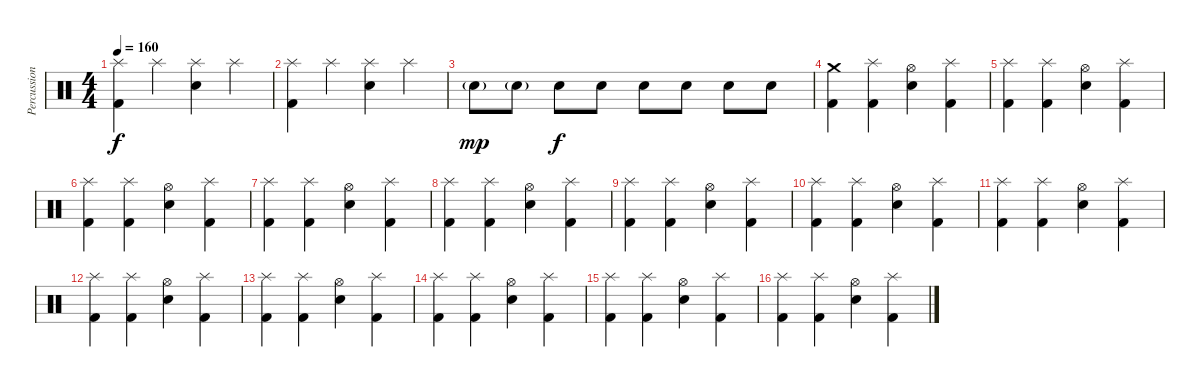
\track ("Percussion" "Percussion") {instrument percussion}
\staff {score}
\articulation defaults
\ts (4 4)
\tempo 160
\clef neutral
\ks c
("Splash (hit)" "Kick (hit) 2").4{dy f} "Splash (hit)".4 ("Splash (hit)" "Electric Snare (hit)").4 "Splash (hit)".4 |
("Splash (hit)" "Kick (hit) 2").4 "Splash (hit)".4 ("Splash (hit)" "Electric Snare (hit)").4 "Splash (hit)".4 |
"Electric Snare (hit)"{g}.8{dy mp} "Electric Snare (hit)"{g}.8 "Electric Snare (hit)".8{dy f} "Electric Snare (hit)".8 "Electric Snare (hit)".8 "Electric Snare (hit)".8 "Electric Snare (hit)".8 "Electric Snare (hit)".8 |
("Crash medium (hit)" "Kick (hit) 2").4 ("Splash (hit)" "Kick (hit) 2").4 ("Hi-Hat (open)" "Electric Snare (hit)").4 ("Splash (hit)" "Kick (hit) 2").4 |
("Splash (hit)" "Kick (hit) 2").4 ("Splash (hit)" "Kick (hit) 2").4 ("Hi-Hat (open)" "Electric Snare (hit)").4 ("Splash (hit)" "Kick (hit) 2").4 |
("Splash (hit)" "Kick (hit) 2").4 ("Splash (hit)" "Kick (hit) 2").4 ("Hi-Hat (open)" "Electric Snare (hit)").4 ("Splash (hit)" "Kick (hit) 2").4 |
("Splash (hit)" "Kick (hit) 2").4 ("Splash (hit)" "Kick (hit) 2").4 ("Hi-Hat (open)" "Electric Snare (hit)").4 ("Splash (hit)" "Kick (hit) 2").4 |
("Splash (hit)" "Kick (hit) 2").4 ("Splash (hit)" "Kick (hit) 2").4 ("Hi-Hat (open)" "Electric Snare (hit)").4 ("Splash (hit)" "Kick (hit) 2").4 |
("Splash (hit)" "Kick (hit) 2").4 ("Splash (hit)" "Kick (hit) 2").4 ("Hi-Hat (open)" "Electric Snare (hit)").4 ("Splash (hit)" "Kick (hit) 2").4 |
("Splash (hit)" "Kick (hit) 2").4 ("Splash (hit)" "Kick (hit) 2").4 ("Hi-Hat (open)" "Electric Snare (hit)").4 ("Splash (hit)" "Kick (hit) 2").4 |
("Splash (hit)" "Kick (hit) 2").4 ("Splash (hit)" "Kick (hit) 2").4 ("Hi-Hat (open)" "Electric Snare (hit)").4 ("Splash (hit)" "Kick (hit) 2").4 |
("Splash (hit)" "Kick (hit) 2").4 ("Splash (hit)" "Kick (hit) 2").4 ("Hi-Hat (open)" "Electric Snare (hit)").4 ("Splash (hit)" "Kick (hit) 2").4 |
("Splash (hit)" "Kick (hit) 2").4 ("Splash (hit)" "Kick (hit) 2").4 ("Hi-Hat (open)" "Electric Snare (hit)").4 ("Splash (hit)" "Kick (hit) 2").4 |
("Splash (hit)" "Kick (hit) 2").4 ("Splash (hit)" "Kick (hit) 2").4 ("Hi-Hat (open)" "Electric Snare (hit)").4 ("Splash (hit)" "Kick (hit) 2").4 |
("Splash (hit)" "Kick (hit) 2").4 ("Splash (hit)" "Kick (hit) 2").4 ("Hi-Hat (open)" "Electric Snare (hit)").4 ("Splash (hit)" "Kick (hit) 2").4 |
("Splash (hit)" "Kick (hit) 2").4 ("Splash (hit)" "Kick (hit) 2").4 ("Hi-Hat (open)" "Electric Snare (hit)").4 ("Splash (hit)" "Kick (hit) 2").4
